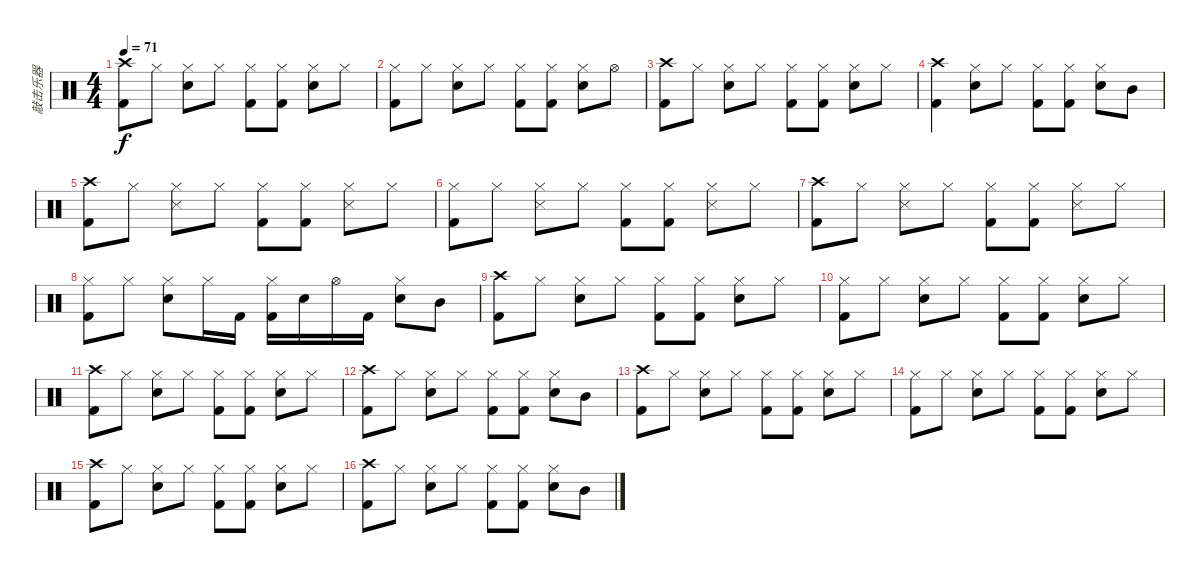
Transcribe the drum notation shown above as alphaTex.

\track ("敲击乐器" "敲击乐器") {instrument percussion}
\staff {score}
\articulation defaults
\ts (4 4)
\tempo 71
\clef neutral
\ks c
("Crash high (hit)" "Kick (hit) 2").8{dy f} "Hi-Hat (closed)".8 ("Hi-Hat (closed)" "Electric Snare (hit)").8 "Hi-Hat (closed)".8 ("Hi-Hat (closed)" "Kick (hit) 2").8 ("Hi-Hat (closed)" "Kick (hit) 2").8 ("Hi-Hat (closed)" "Electric Snare (hit)").8 "Hi-Hat (closed)".8 |
("Hi-Hat (closed)" "Kick (hit) 2").8 "Hi-Hat (closed)".8 ("Hi-Hat (closed)" "Electric Snare (hit)").8 "Hi-Hat (closed)".8 ("Hi-Hat (closed)" "Kick (hit) 2").8 ("Hi-Hat (closed)" "Kick (hit) 2").8 ("Hi-Hat (closed)" "Electric Snare (hit)").8 "Hi-Hat (open)".8 |
("Crash high (hit)" "Kick (hit) 2").8 "Hi-Hat (closed)".8 ("Hi-Hat (closed)" "Electric Snare (hit)").8 "Hi-Hat (closed)".8 ("Hi-Hat (closed)" "Kick (hit) 2").8 ("Hi-Hat (closed)" "Kick (hit) 2").8 ("Hi-Hat (closed)" "Electric Snare (hit)").8 "Hi-Hat (closed)".8 |
("Crash high (hit)" "Kick (hit) 2").4 ("Hi-Hat (closed)" "Electric Snare (hit)").8 "Hi-Hat (closed)".8 ("Hi-Hat (closed)" "Kick (hit) 2").8 ("Hi-Hat (closed)" "Kick (hit) 2").8 ("Hi-Hat (closed)" "Electric Snare (hit)").8 "Mid Tom (hit)".8 |
("Crash high (hit)" "Kick (hit) 2").8 "Hi-Hat (closed)".8 ("Hi-Hat (closed)" "Snare (side stick) 3").8 "Hi-Hat (closed)".8 ("Hi-Hat (closed)" "Kick (hit) 2").8 ("Hi-Hat (closed)" "Kick (hit) 2").8 ("Hi-Hat (closed)" "Snare (side stick) 3").8 "Hi-Hat (closed)".8 |
("Hi-Hat (closed)" "Kick (hit) 2").8 "Hi-Hat (closed)".8 ("Hi-Hat (closed)" "Snare (side stick) 3").8 "Hi-Hat (closed)".8 ("Hi-Hat (closed)" "Kick (hit) 2").8 ("Hi-Hat (closed)" "Kick (hit) 2").8 ("Hi-Hat (closed)" "Snare (side stick) 3").8 "Hi-Hat (closed)".8 |
("Crash high (hit)" "Kick (hit) 2").8 "Hi-Hat (closed)".8 ("Hi-Hat (closed)" "Snare (side stick) 3").8 "Hi-Hat (closed)".8 ("Hi-Hat (closed)" "Kick (hit) 2").8 ("Hi-Hat (closed)" "Kick (hit) 2").8 ("Hi-Hat (closed)" "Snare (side stick) 3").8 "Hi-Hat (closed)".8 |
("Hi-Hat (closed)" "Kick (hit) 2").8 "Hi-Hat (closed)".8 ("Hi-Hat (closed)" "Electric Snare (hit)").8 "Hi-Hat (closed)".16 "Kick (hit) 2".16 ("Hi-Hat (closed)" "Kick (hit) 2").16 "Electric Snare (hit)".16 "Hi-Hat (open)".16 "Kick (hit) 2".16 ("Hi-Hat (closed)" "Electric Snare (hit)").8 "Mid Tom (hit)".8 |
("Crash high (hit)" "Kick (hit) 2").8 "Hi-Hat (closed)".8 ("Hi-Hat (closed)" "Electric Snare (hit)").8 "Hi-Hat (closed)".8 ("Hi-Hat (closed)" "Kick (hit) 2").8 ("Hi-Hat (closed)" "Kick (hit) 2").8 ("Hi-Hat (closed)" "Electric Snare (hit)").8 "Hi-Hat (closed)".8 |
("Hi-Hat (closed)" "Kick (hit) 2").8 "Hi-Hat (closed)".8 ("Hi-Hat (closed)" "Electric Snare (hit)").8 "Hi-Hat (closed)".8 ("Hi-Hat (closed)" "Kick (hit) 2").8 ("Hi-Hat (closed)" "Kick (hit) 2").8 ("Hi-Hat (closed)" "Electric Snare (hit)").8 "Hi-Hat (closed)".8 |
("Crash high (hit)" "Kick (hit) 2").8 "Hi-Hat (closed)".8 ("Hi-Hat (closed)" "Electric Snare (hit)").8 "Hi-Hat (closed)".8 ("Hi-Hat (closed)" "Kick (hit) 2").8 ("Hi-Hat (closed)" "Kick (hit) 2").8 ("Hi-Hat (closed)" "Electric Snare (hit)").8 "Hi-Hat (closed)".8 |
("Crash high (hit)" "Kick (hit) 2").8 "Hi-Hat (closed)".8 ("Hi-Hat (closed)" "Electric Snare (hit)").8 "Hi-Hat (closed)".8 ("Hi-Hat (closed)" "Kick (hit) 2").8 ("Hi-Hat (closed)" "Kick (hit) 2").8 ("Hi-Hat (closed)" "Electric Snare (hit)").8 "Mid Tom (hit)".8 |
("Crash high (hit)" "Kick (hit) 2").8 "Hi-Hat (closed)".8 ("Hi-Hat (closed)" "Electric Snare (hit)").8 "Hi-Hat (closed)".8 ("Hi-Hat (closed)" "Kick (hit) 2").8 ("Hi-Hat (closed)" "Kick (hit) 2").8 ("Hi-Hat (closed)" "Electric Snare (hit)").8 "Hi-Hat (closed)".8 |
("Hi-Hat (closed)" "Kick (hit) 2").8 "Hi-Hat (closed)".8 ("Hi-Hat (closed)" "Electric Snare (hit)").8 "Hi-Hat (closed)".8 ("Hi-Hat (closed)" "Kick (hit) 2").8 ("Hi-Hat (closed)" "Kick (hit) 2").8 ("Hi-Hat (closed)" "Electric Snare (hit)").8 "Hi-Hat (closed)".8 |
("Crash high (hit)" "Kick (hit) 2").8 "Hi-Hat (closed)".8 ("Hi-Hat (closed)" "Electric Snare (hit)").8 "Hi-Hat (closed)".8 ("Hi-Hat (closed)" "Kick (hit) 2").8 ("Hi-Hat (closed)" "Kick (hit) 2").8 ("Hi-Hat (closed)" "Electric Snare (hit)").8 "Hi-Hat (closed)".8 |
("Crash high (hit)" "Kick (hit) 2").8 "Hi-Hat (closed)".8 ("Hi-Hat (closed)" "Electric Snare (hit)").8 "Hi-Hat (closed)".8 ("Hi-Hat (closed)" "Kick (hit) 2").8 ("Hi-Hat (closed)" "Kick (hit) 2").8 ("Hi-Hat (closed)" "Electric Snare (hit)").8 "Mid Tom (hit)".8
